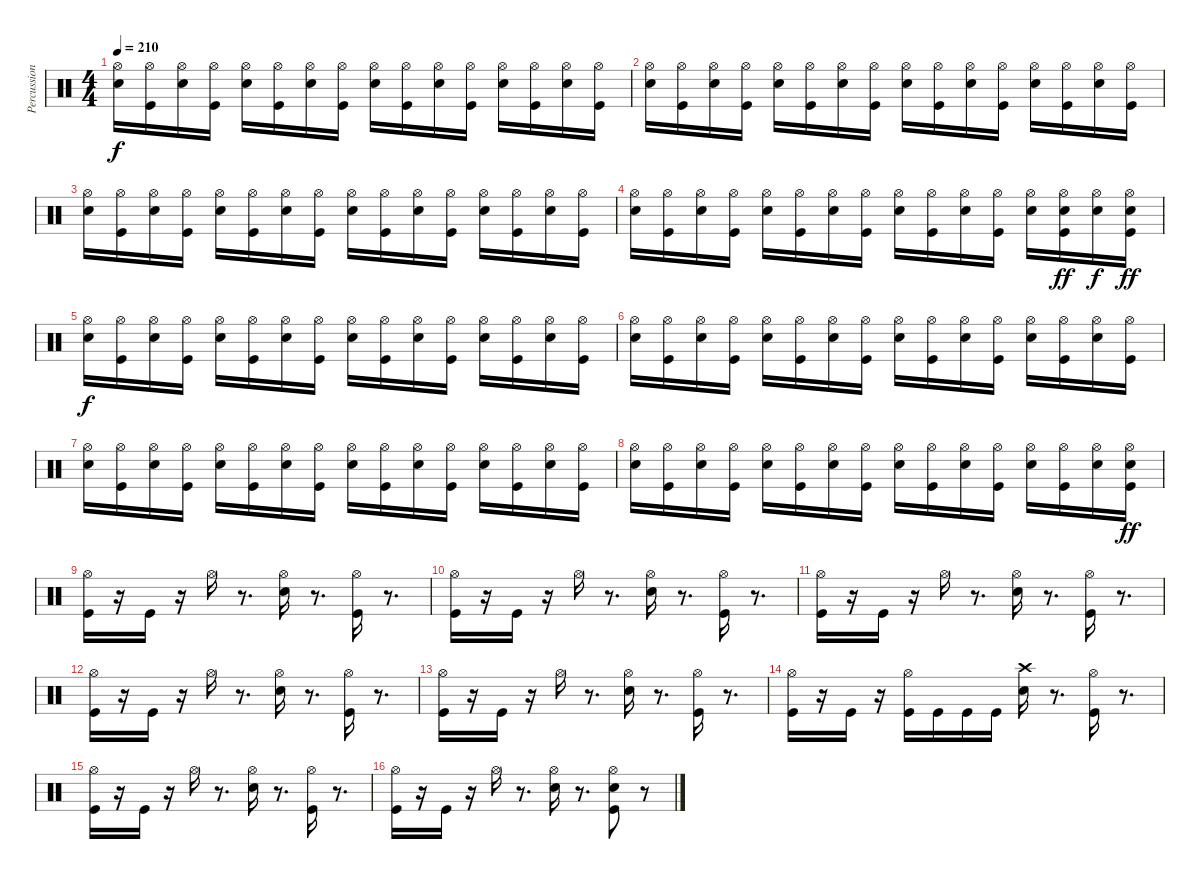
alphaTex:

\track ("Percussion" "Percussion") {instrument percussion}
\staff {score}
\articulation defaults
\ts (4 4)
\tempo 210
\clef neutral
\ks c
("Hi-Hat (open)" "Snare (hit) 2").16{dy f} ("Hi-Hat (open)" "Kick (hit)").16 ("Hi-Hat (open)" "Snare (hit) 2").16 ("Hi-Hat (open)" "Kick (hit)").16 ("Hi-Hat (open)" "Snare (hit) 2").16 ("Hi-Hat (open)" "Kick (hit)").16 ("Hi-Hat (open)" "Snare (hit) 2").16 ("Hi-Hat (open)" "Kick (hit)").16 ("Hi-Hat (open)" "Snare (hit) 2").16 ("Hi-Hat (open)" "Kick (hit)").16 ("Hi-Hat (open)" "Snare (hit) 2").16 ("Hi-Hat (open)" "Kick (hit)").16 ("Hi-Hat (open)" "Snare (hit) 2").16 ("Hi-Hat (open)" "Kick (hit)").16 ("Hi-Hat (open)" "Snare (hit) 2").16 ("Hi-Hat (open)" "Kick (hit)").16 |
("Hi-Hat (open)" "Snare (hit) 2").16 ("Hi-Hat (open)" "Kick (hit)").16 ("Hi-Hat (open)" "Snare (hit) 2").16 ("Hi-Hat (open)" "Kick (hit)").16 ("Hi-Hat (open)" "Snare (hit) 2").16 ("Hi-Hat (open)" "Kick (hit)").16 ("Hi-Hat (open)" "Snare (hit) 2").16 ("Hi-Hat (open)" "Kick (hit)").16 ("Hi-Hat (open)" "Snare (hit) 2").16 ("Hi-Hat (open)" "Kick (hit)").16 ("Hi-Hat (open)" "Snare (hit) 2").16 ("Hi-Hat (open)" "Kick (hit)").16 ("Hi-Hat (open)" "Snare (hit) 2").16 ("Hi-Hat (open)" "Kick (hit)").16 ("Hi-Hat (open)" "Snare (hit) 2").16 ("Hi-Hat (open)" "Kick (hit)").16 |
("Hi-Hat (open)" "Snare (hit) 2").16 ("Hi-Hat (open)" "Kick (hit)").16 ("Hi-Hat (open)" "Snare (hit) 2").16 ("Hi-Hat (open)" "Kick (hit)").16 ("Hi-Hat (open)" "Snare (hit) 2").16 ("Hi-Hat (open)" "Kick (hit)").16 ("Hi-Hat (open)" "Snare (hit) 2").16 ("Hi-Hat (open)" "Kick (hit)").16 ("Hi-Hat (open)" "Snare (hit) 2").16 ("Hi-Hat (open)" "Kick (hit)").16 ("Hi-Hat (open)" "Snare (hit) 2").16 ("Hi-Hat (open)" "Kick (hit)").16 ("Hi-Hat (open)" "Snare (hit) 2").16 ("Hi-Hat (open)" "Kick (hit)").16 ("Hi-Hat (open)" "Snare (hit) 2").16 ("Hi-Hat (open)" "Kick (hit)").16 |
("Hi-Hat (open)" "Snare (hit) 2").16 ("Hi-Hat (open)" "Kick (hit)").16 ("Hi-Hat (open)" "Snare (hit) 2").16 ("Hi-Hat (open)" "Kick (hit)").16 ("Hi-Hat (open)" "Snare (hit) 2").16 ("Hi-Hat (open)" "Kick (hit)").16 ("Hi-Hat (open)" "Snare (hit) 2").16 ("Hi-Hat (open)" "Kick (hit)").16 ("Hi-Hat (open)" "Snare (hit) 2").16 ("Hi-Hat (open)" "Kick (hit)").16 ("Hi-Hat (open)" "Snare (hit) 2").16 ("Hi-Hat (open)" "Kick (hit)").16 ("Hi-Hat (open)" "Snare (hit) 2").16 ("Snare (hit) 2" "Hi-Hat (open)" "Kick (hit)").16{dy ff} ("Hi-Hat (open)" "Snare (hit) 2").16{dy f} ("Snare (hit) 2" "Hi-Hat (open)" "Kick (hit)").16{dy ff} |
("Hi-Hat (open)" "Snare (hit) 2").16{dy f} ("Hi-Hat (open)" "Kick (hit)").16 ("Hi-Hat (open)" "Snare (hit) 2").16 ("Hi-Hat (open)" "Kick (hit)").16 ("Hi-Hat (open)" "Snare (hit) 2").16 ("Hi-Hat (open)" "Kick (hit)").16 ("Hi-Hat (open)" "Snare (hit) 2").16 ("Hi-Hat (open)" "Kick (hit)").16 ("Hi-Hat (open)" "Snare (hit) 2").16 ("Hi-Hat (open)" "Kick (hit)").16 ("Hi-Hat (open)" "Snare (hit) 2").16 ("Hi-Hat (open)" "Kick (hit)").16 ("Hi-Hat (open)" "Snare (hit) 2").16 ("Hi-Hat (open)" "Kick (hit)").16 ("Hi-Hat (open)" "Snare (hit) 2").16 ("Hi-Hat (open)" "Kick (hit)").16 |
("Hi-Hat (open)" "Snare (hit) 2").16 ("Hi-Hat (open)" "Kick (hit)").16 ("Hi-Hat (open)" "Snare (hit) 2").16 ("Hi-Hat (open)" "Kick (hit)").16 ("Hi-Hat (open)" "Snare (hit) 2").16 ("Hi-Hat (open)" "Kick (hit)").16 ("Hi-Hat (open)" "Snare (hit) 2").16 ("Hi-Hat (open)" "Kick (hit)").16 ("Hi-Hat (open)" "Snare (hit) 2").16 ("Hi-Hat (open)" "Kick (hit)").16 ("Hi-Hat (open)" "Snare (hit) 2").16 ("Hi-Hat (open)" "Kick (hit)").16 ("Hi-Hat (open)" "Snare (hit) 2").16 ("Hi-Hat (open)" "Kick (hit)").16 ("Hi-Hat (open)" "Snare (hit) 2").16 ("Hi-Hat (open)" "Kick (hit)").16 |
("Hi-Hat (open)" "Snare (hit) 2").16 ("Hi-Hat (open)" "Kick (hit)").16 ("Hi-Hat (open)" "Snare (hit) 2").16 ("Hi-Hat (open)" "Kick (hit)").16 ("Hi-Hat (open)" "Snare (hit) 2").16 ("Hi-Hat (open)" "Kick (hit)").16 ("Hi-Hat (open)" "Snare (hit) 2").16 ("Hi-Hat (open)" "Kick (hit)").16 ("Hi-Hat (open)" "Snare (hit) 2").16 ("Hi-Hat (open)" "Kick (hit)").16 ("Hi-Hat (open)" "Snare (hit) 2").16 ("Hi-Hat (open)" "Kick (hit)").16 ("Hi-Hat (open)" "Snare (hit) 2").16 ("Hi-Hat (open)" "Kick (hit)").16 ("Hi-Hat (open)" "Snare (hit) 2").16 ("Hi-Hat (open)" "Kick (hit)").16 |
("Hi-Hat (open)" "Snare (hit) 2").16 ("Hi-Hat (open)" "Kick (hit)").16 ("Hi-Hat (open)" "Snare (hit) 2").16 ("Hi-Hat (open)" "Kick (hit)").16 ("Hi-Hat (open)" "Snare (hit) 2").16 ("Hi-Hat (open)" "Kick (hit)").16 ("Hi-Hat (open)" "Snare (hit) 2").16 ("Hi-Hat (open)" "Kick (hit)").16 ("Hi-Hat (open)" "Snare (hit) 2").16 ("Hi-Hat (open)" "Kick (hit)").16 ("Hi-Hat (open)" "Snare (hit) 2").16 ("Hi-Hat (open)" "Kick (hit)").16 ("Hi-Hat (open)" "Snare (hit) 2").16 ("Hi-Hat (open)" "Kick (hit)").16 ("Hi-Hat (open)" "Snare (hit) 2").16 ("Snare (hit) 2" "Hi-Hat (open)" "Kick (hit)").16{dy ff} |
("Hi-Hat (open)" "Kick (hit)").16 r.16 "Kick (hit)".16 r.16 "Hi-Hat (open)".16 r.8{d} ("Hi-Hat (open)" "Snare (hit) 2").16 r.8{d} ("Kick (hit)" "Hi-Hat (open)").16 r.8{d} |
("Hi-Hat (open)" "Kick (hit)").16 r.16 "Kick (hit)".16 r.16 "Hi-Hat (open)".16 r.8{d} ("Hi-Hat (open)" "Snare (hit) 2").16 r.8{d} ("Kick (hit)" "Hi-Hat (open)").16 r.8{d} |
("Hi-Hat (open)" "Kick (hit)").16 r.16 "Kick (hit)".16 r.16 "Hi-Hat (open)".16 r.8{d} ("Hi-Hat (open)" "Snare (hit) 2").16 r.8{d} ("Kick (hit)" "Hi-Hat (open)").16 r.8{d} |
("Hi-Hat (open)" "Kick (hit)").16 r.16 "Kick (hit)".16 r.16 "Hi-Hat (open)".16 r.8{d} ("Hi-Hat (open)" "Snare (hit) 2").16 r.8{d} ("Kick (hit)" "Hi-Hat (open)").16 r.8{d} |
("Hi-Hat (open)" "Kick (hit)").16 r.16 "Kick (hit)".16 r.16 "Hi-Hat (open)".16 r.8{d} ("Hi-Hat (open)" "Snare (hit) 2").16 r.8{d} ("Kick (hit)" "Hi-Hat (open)").16 r.8{d} |
("Hi-Hat (open)" "Kick (hit)").16 r.16 "Kick (hit)".16 r.16 ("Kick (hit)" "Hi-Hat (open)").16 "Kick (hit)".16 "Kick (hit)".16 "Kick (hit)".16 ("Crash high (hit)" "Snare (hit) 2").16 r.8{d} ("Kick (hit)" "Hi-Hat (open)").16 r.8{d} |
("Hi-Hat (open)" "Kick (hit)").16 r.16 "Kick (hit)".16 r.16 "Hi-Hat (open)".16 r.8{d} ("Hi-Hat (open)" "Snare (hit) 2").16 r.8{d} ("Kick (hit)" "Hi-Hat (open)").16 r.8{d} |
("Hi-Hat (open)" "Kick (hit)").16 r.16 "Kick (hit)".16 r.16 "Hi-Hat (open)".16 r.8{d} ("Hi-Hat (open)" "Snare (hit) 2").16 r.8{d} ("Snare (hit) 2" "Kick (hit)" "Hi-Hat (open)").8 r.8
